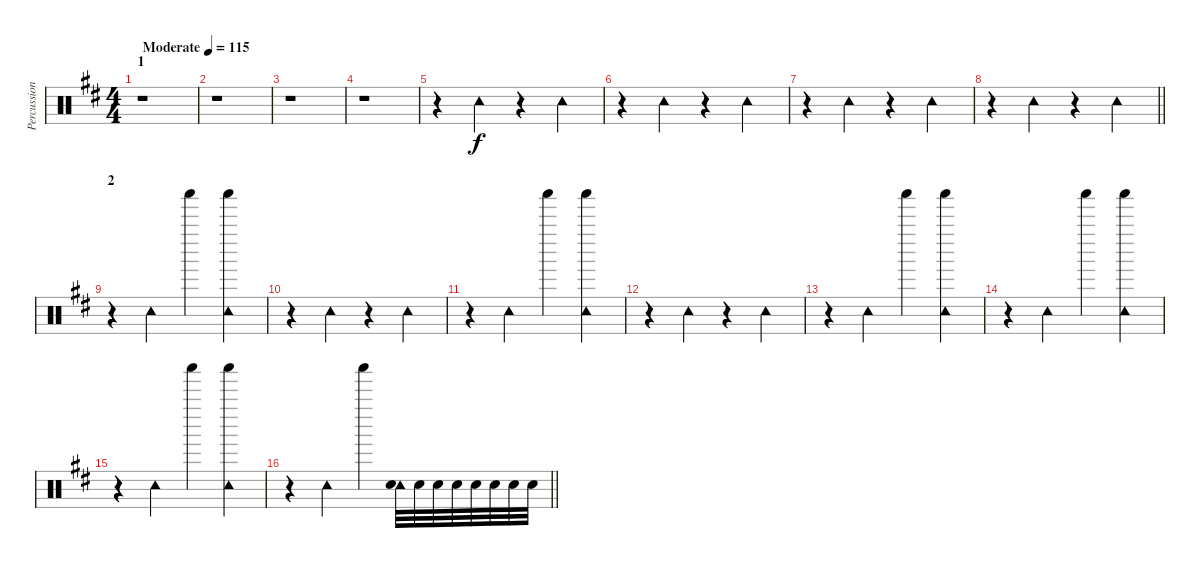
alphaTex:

\track ("Percussion" "Percussion") {instrument percussion}
\staff {score}
\articulation defaults
\ts (4 4)
\section ("" "1")
\tempo (115 "Moderate")
\clef neutral
\ks d
r.1{dy f} |
r.1 |
r.1 |
r.1 |
r.4 "Tambourine (hit)".4 r.4 "Tambourine (hit)".4 |
r.4 "Tambourine (hit)".4 r.4 "Tambourine (hit)".4 |
r.4 "Tambourine (hit)".4 r.4 "Tambourine (hit)".4 |
\barLineRight lightlight
r.4 "Tambourine (hit)".4 r.4 "Tambourine (hit)".4 |
\section ("" "2")
r.4 "Tambourine (hit)".4 "Shaker (hit)".4 ("Tambourine (hit)" "Shaker (hit)").4 |
r.4 "Tambourine (hit)".4 r.4 "Tambourine (hit)".4 |
r.4 "Tambourine (hit)".4 "Shaker (hit)".4 ("Tambourine (hit)" "Shaker (hit)").4 |
r.4 "Tambourine (hit)".4 r.4 "Tambourine (hit)".4 |
r.4 "Tambourine (hit)".4 "Shaker (hit)".4 ("Tambourine (hit)" "Shaker (hit)").4 |
r.4 "Tambourine (hit)".4 "Shaker (hit)".4 ("Tambourine (hit)" "Shaker (hit)").4 |
r.4 "Tambourine (hit)".4 "Shaker (hit)".4 ("Tambourine (hit)" "Shaker (hit)").4 |
\barLineRight lightlight
r.4 "Tambourine (hit)".4 "Shaker (hit)".4 ("Tambourine (hit)" "Snare (hit) 2").32 "Snare (hit) 2".32 "Snare (hit) 2".32 "Snare (hit) 2".32 "Snare (hit) 2".32 "Snare (hit) 2".32 "Snare (hit) 2".32 "Snare (hit) 2".32
